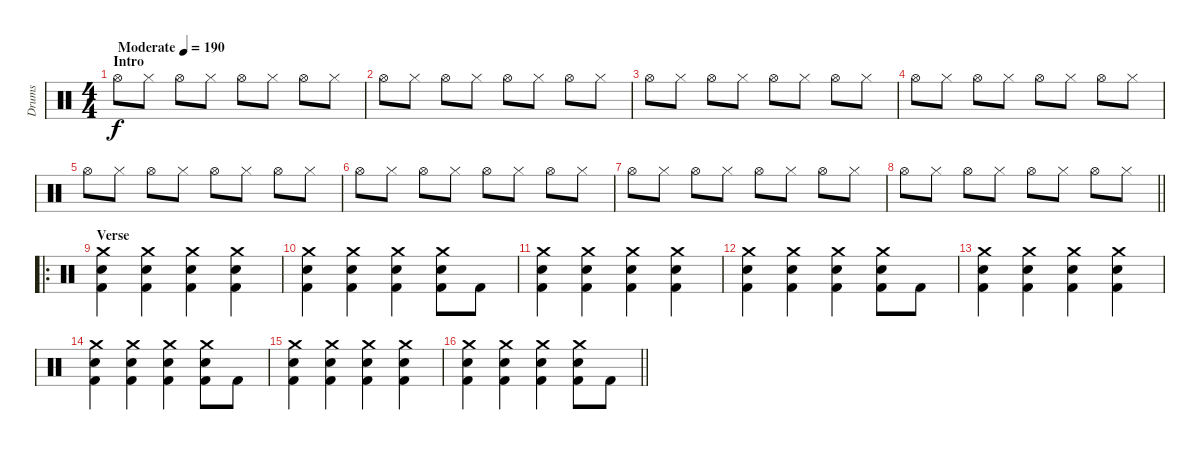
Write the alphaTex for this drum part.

\track ("Drums" "Drums") {instrument percussion}
\staff {score}
\articulation defaults
\ts (4 4)
\section ("" "Intro")
\tempo (190 "Moderate")
\clef neutral
\ks c "Hi-Hat (open)".8{dy f} "Hi-Hat (closed)".8 "Hi-Hat (open)".8 "Hi-Hat (closed)".8 "Hi-Hat (open)".8 "Hi-Hat (closed)".8 "Hi-Hat (open)".8 "Hi-Hat (closed)".8
|
"Hi-Hat (open)".8 "Hi-Hat (closed)".8 "Hi-Hat (open)".8 "Hi-Hat (closed)".8 "Hi-Hat (open)".8 "Hi-Hat (closed)".8 "Hi-Hat (open)".8 "Hi-Hat (closed)".8 |
"Hi-Hat (open)".8 "Hi-Hat (closed)".8 "Hi-Hat (open)".8 "Hi-Hat (closed)".8 "Hi-Hat (open)".8 "Hi-Hat (closed)".8 "Hi-Hat (open)".8 "Hi-Hat (closed)".8 |
"Hi-Hat (open)".8 "Hi-Hat (closed)".8 "Hi-Hat (open)".8 "Hi-Hat (closed)".8 "Hi-Hat (open)".8 "Hi-Hat (closed)".8 "Hi-Hat (open)".8 "Hi-Hat (closed)".8 |
"Hi-Hat (open)".8 "Hi-Hat (closed)".8 "Hi-Hat (open)".8 "Hi-Hat (closed)".8 "Hi-Hat (open)".8 "Hi-Hat (closed)".8 "Hi-Hat (open)".8 "Hi-Hat (closed)".8 |
"Hi-Hat (open)".8 "Hi-Hat (closed)".8 "Hi-Hat (open)".8 "Hi-Hat (closed)".8 "Hi-Hat (open)".8 "Hi-Hat (closed)".8 "Hi-Hat (open)".8 "Hi-Hat (closed)".8 |
"Hi-Hat (open)".8 "Hi-Hat (closed)".8 "Hi-Hat (open)".8 "Hi-Hat (closed)".8 "Hi-Hat (open)".8 "Hi-Hat (closed)".8 "Hi-Hat (open)".8 "Hi-Hat (closed)".8 |
\barLineRight lightlight "Hi-Hat (open)".8 "Hi-Hat (closed)".8 "Hi-Hat (open)".8 "Hi-Hat (closed)".8 "Hi-Hat (open)".8 "Hi-Hat (closed)".8 "Hi-Hat (open)".8 "Hi-Hat (closed)".8
|
\ro
\section ("" "Verse")
("Crash medium (hit)" "Electric Snare (hit)" "Kick (hit) 2").4 ("Crash medium (hit)" "Electric Snare (hit)" "Kick (hit) 2").4 ("Crash medium (hit)" "Electric Snare (hit)" "Kick (hit) 2").4 ("Crash medium (hit)" "Electric Snare (hit)" "Kick (hit) 2").4 |
("Crash medium (hit)" "Electric Snare (hit)" "Kick (hit) 2").4 ("Crash medium (hit)" "Electric Snare (hit)" "Kick (hit) 2").4 ("Crash medium (hit)" "Electric Snare (hit)" "Kick (hit) 2").4 ("Crash medium (hit)" "Electric Snare (hit)" "Kick (hit) 2").8 "Kick (hit) 2".8 |
("Crash medium (hit)" "Electric Snare (hit)" "Kick (hit) 2").4 ("Crash medium (hit)" "Electric Snare (hit)" "Kick (hit) 2").4 ("Crash medium (hit)" "Electric Snare (hit)" "Kick (hit) 2").4 ("Crash medium (hit)" "Electric Snare (hit)" "Kick (hit) 2").4 |
("Crash medium (hit)" "Electric Snare (hit)" "Kick (hit) 2").4 ("Crash medium (hit)" "Electric Snare (hit)" "Kick (hit) 2").4 ("Crash medium (hit)" "Electric Snare (hit)" "Kick (hit) 2").4 ("Crash medium (hit)" "Electric Snare (hit)" "Kick (hit) 2").8 "Kick (hit) 2".8 |
("Crash medium (hit)" "Electric Snare (hit)" "Kick (hit) 2").4 ("Crash medium (hit)" "Electric Snare (hit)" "Kick (hit) 2").4 ("Crash medium (hit)" "Electric Snare (hit)" "Kick (hit) 2").4 ("Crash medium (hit)" "Electric Snare (hit)" "Kick (hit) 2").4 |
("Crash medium (hit)" "Electric Snare (hit)" "Kick (hit) 2").4 ("Crash medium (hit)" "Electric Snare (hit)" "Kick (hit) 2").4 ("Crash medium (hit)" "Electric Snare (hit)" "Kick (hit) 2").4 ("Crash medium (hit)" "Electric Snare (hit)" "Kick (hit) 2").8 "Kick (hit) 2".8 |
("Crash medium (hit)" "Electric Snare (hit)" "Kick (hit) 2").4 ("Crash medium (hit)" "Electric Snare (hit)" "Kick (hit) 2").4 ("Crash medium (hit)" "Electric Snare (hit)" "Kick (hit) 2").4 ("Crash medium (hit)" "Electric Snare (hit)" "Kick (hit) 2").4 |
\barLineRight lightlight
("Crash medium (hit)" "Electric Snare (hit)" "Kick (hit) 2").4 ("Crash medium (hit)" "Electric Snare (hit)" "Kick (hit) 2").4 ("Crash medium (hit)" "Electric Snare (hit)" "Kick (hit) 2").4 ("Crash medium (hit)" "Electric Snare (hit)" "Kick (hit) 2").8 "Kick (hit) 2".8
